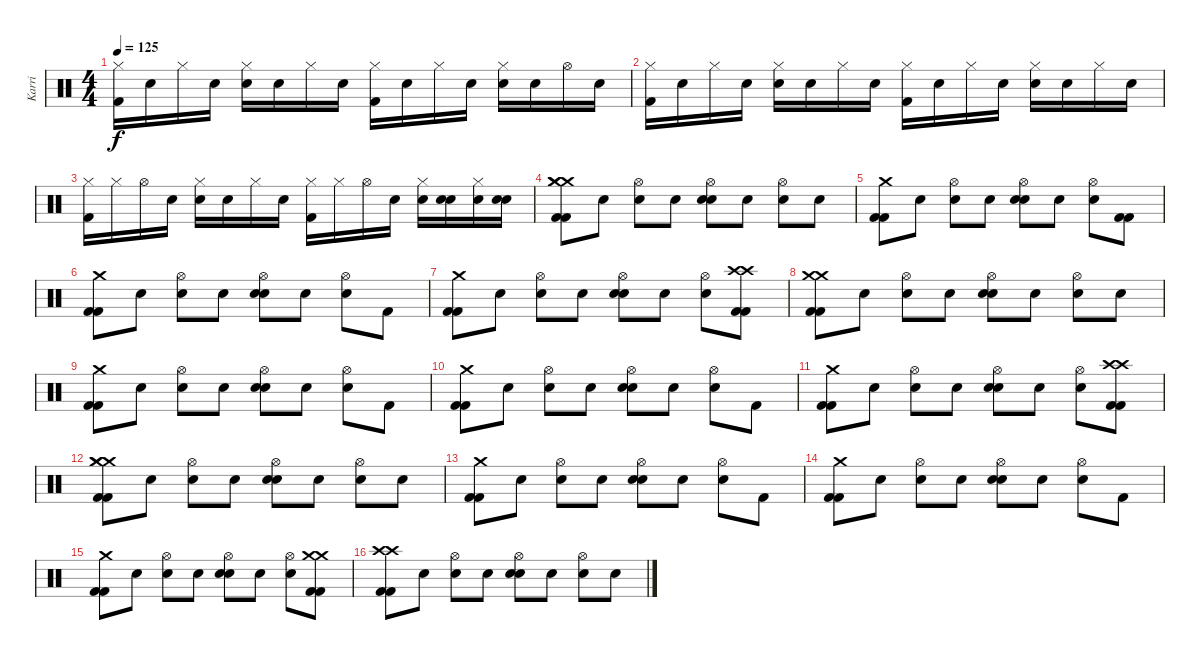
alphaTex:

\track ("Karri" "Karri") {instrument percussion}
\staff {score}
\articulation defaults
\ts (4 4)
\tempo 125
\clef neutral
\ks c
("Hi-Hat (closed)" "Kick (hit) 2").16{dy f} "Snare (hit)"{x}.16 "Hi-Hat (closed)".16 "Snare (hit)"{x}.16 ("Hi-Hat (closed)" "Snare (hit) 2").16 "Snare (hit)"{x}.16 "Hi-Hat (closed)".16 "Snare (hit)"{x}.16 ("Hi-Hat (closed)" "Kick (hit) 2").16 "Snare (hit)"{x}.16 "Hi-Hat (closed)".16 "Snare (hit)"{x}.16 ("Hi-Hat (closed)" "Snare (hit) 2").16 "Snare (hit)"{x}.16 "Hi-Hat (open)".16 "Snare (hit)"{x}.16 |
("Hi-Hat (closed)" "Kick (hit) 2").16 "Snare (hit)"{x}.16 "Hi-Hat (closed)".16 "Snare (hit)"{x}.16 ("Hi-Hat (closed)" "Snare (hit) 2").16 "Snare (hit)"{x}.16 "Hi-Hat (closed)".16 "Snare (hit)"{x}.16 ("Hi-Hat (closed)" "Kick (hit) 2").16 "Snare (hit)"{x}.16 "Hi-Hat (closed)".16 "Snare (hit)"{x}.16 ("Hi-Hat (closed)" "Snare (hit) 2").16 "Snare (hit)"{x}.16 "Hi-Hat (closed)".16 "Snare (hit)"{x}.16 |
("Hi-Hat (closed)" "Kick (hit) 2").16 "Hi-Hat (closed)".16 "Hi-Hat (open)".16 "Snare (hit)"{x}.16 ("Hi-Hat (closed)" "Snare (hit) 2").16 "Snare (hit)"{x}.16 "Hi-Hat (closed)".16 "Snare (hit)"{x}.16 ("Hi-Hat (closed)" "Kick (hit) 2").16 "Hi-Hat (closed)".16 "Hi-Hat (open)".16 "Snare (hit)"{x}.16 ("Hi-Hat (closed)"{x} "Snare (hit) 2").16 ("Snare (hit)"{x} "Snare (hit) 2").16 ("Hi-Hat (closed)"{x} "Snare (hit) 2").16 ("Snare (hit)"{x} "Snare (hit) 2").16 |
("Crash medium (hit)" "Crash medium (hit)" "Crash medium (hit)" "Kick (hit) 2" "Kick (hit) 2").8 "Snare (hit)"{x}.8 ("Hi-Hat (open)" "Snare (hit)"{x}).8 "Snare (hit)"{x}.8 ("Hi-Hat (open)" "Snare (hit) 2" "Snare (hit) 2").8 "Snare (hit)"{x}.8 ("Hi-Hat (open)" "Snare (hit)"{x}).8 "Snare (hit)"{x}.8 |
("Crash medium (hit)" "Kick (hit) 2" "Kick (hit) 2").8 "Snare (hit)"{x}.8 ("Hi-Hat (open)" "Snare (hit)"{x}).8 "Snare (hit)"{x}.8 ("Hi-Hat (open)" "Snare (hit) 2" "Snare (hit) 2").8 "Snare (hit)"{x}.8 ("Hi-Hat (open)" "Snare (hit)"{x}).8 ("Kick (hit) 2"{x} "Kick (hit) 2"{x}).8 |
("Crash medium (hit)" "Kick (hit) 2" "Kick (hit) 2").8 "Snare (hit)"{x}.8 ("Hi-Hat (open)" "Snare (hit)"{x}).8 "Snare (hit)"{x}.8 ("Hi-Hat (open)" "Snare (hit) 2" "Snare (hit) 2").8 "Snare (hit)"{x}.8 ("Hi-Hat (open)" "Snare (hit)"{x}).8 "Kick (hit) 2"{x}.8 |
("Crash medium (hit)" "Kick (hit) 2" "Kick (hit) 2").8 "Snare (hit)"{x}.8 ("Hi-Hat (open)" "Snare (hit)"{x}).8 "Snare (hit)"{x}.8 ("Hi-Hat (open)" "Snare (hit) 2" "Snare (hit) 2").8 "Snare (hit)"{x}.8 ("Hi-Hat (open)" "Snare (hit)"{x}).8 ("Crash high (hit)" "Crash high (hit)" "Kick (hit) 2" "Kick (hit) 2").8 |
("Crash medium (hit)" "Crash medium (hit)" "Kick (hit) 2" "Kick (hit) 2").8 "Snare (hit)"{x}.8 ("Hi-Hat (open)" "Snare (hit)"{x}).8 "Snare (hit)"{x}.8 ("Hi-Hat (open)" "Snare (hit) 2" "Snare (hit) 2").8 "Snare (hit)"{x}.8 ("Hi-Hat (open)" "Snare (hit)"{x}).8 "Snare (hit)"{x}.8 |
("Crash medium (hit)" "Kick (hit) 2" "Kick (hit) 2").8 "Snare (hit)"{x}.8 ("Hi-Hat (open)" "Snare (hit)"{x}).8 "Snare (hit)"{x}.8 ("Hi-Hat (open)" "Snare (hit) 2" "Snare (hit) 2").8 "Snare (hit)"{x}.8 ("Hi-Hat (open)" "Snare (hit)"{x}).8 "Kick (hit) 2"{x}.8 |
("Crash medium (hit)" "Kick (hit) 2" "Kick (hit) 2").8 "Snare (hit)"{x}.8 ("Hi-Hat (open)" "Snare (hit)"{x}).8 "Snare (hit)"{x}.8 ("Hi-Hat (open)" "Snare (hit) 2" "Snare (hit) 2").8 "Snare (hit)"{x}.8 ("Hi-Hat (open)" "Snare (hit)"{x}).8 "Kick (hit) 2"{x}.8 |
("Crash medium (hit)" "Kick (hit) 2" "Kick (hit) 2").8 "Snare (hit)"{x}.8 ("Hi-Hat (open)" "Snare (hit)"{x}).8 "Snare (hit)"{x}.8 ("Hi-Hat (open)" "Snare (hit) 2" "Snare (hit) 2").8 "Snare (hit)"{x}.8 ("Hi-Hat (open)" "Snare (hit)"{x}).8 ("Crash high (hit)" "Crash high (hit)" "Kick (hit) 2" "Kick (hit) 2").8 |
("Crash medium (hit)" "Crash medium (hit)" "Crash medium (hit)" "Kick (hit) 2" "Kick (hit) 2").8 "Snare (hit)"{x}.8 ("Hi-Hat (open)" "Snare (hit)"{x}).8 "Snare (hit)"{x}.8 ("Hi-Hat (open)" "Snare (hit) 2" "Snare (hit) 2").8 "Snare (hit)"{x}.8 ("Hi-Hat (open)" "Snare (hit)"{x}).8 "Snare (hit)"{x}.8 |
("Crash medium (hit)" "Kick (hit) 2" "Kick (hit) 2").8 "Snare (hit)"{x}.8 ("Hi-Hat (open)" "Snare (hit)"{x}).8 "Snare (hit)"{x}.8 ("Hi-Hat (open)" "Snare (hit) 2" "Snare (hit) 2").8 "Snare (hit)"{x}.8 ("Hi-Hat (open)" "Snare (hit)"{x}).8 "Kick (hit) 2"{x}.8 |
("Crash medium (hit)" "Kick (hit) 2" "Kick (hit) 2").8 "Snare (hit)"{x}.8 ("Hi-Hat (open)" "Snare (hit)"{x}).8 "Snare (hit)"{x}.8 ("Hi-Hat (open)" "Snare (hit) 2" "Snare (hit) 2").8 "Snare (hit)"{x}.8 ("Hi-Hat (open)" "Snare (hit)"{x}).8 "Kick (hit) 2"{x}.8 |
("Crash medium (hit)" "Kick (hit) 2" "Kick (hit) 2").8 "Snare (hit)"{x}.8 ("Hi-Hat (open)" "Snare (hit)"{x}).8 "Snare (hit)"{x}.8 ("Hi-Hat (open)" "Snare (hit) 2" "Snare (hit) 2").8 "Snare (hit)"{x}.8 ("Hi-Hat (open)" "Snare (hit)"{x}).8 ("Crash medium (hit)" "Crash medium (hit)" "Kick (hit) 2" "Kick (hit) 2").8 |
("Crash high (hit)" "Crash high (hit)" "Kick (hit) 2" "Kick (hit) 2").8 "Snare (hit)"{x}.8 ("Hi-Hat (open)" "Snare (hit)"{x}).8 "Snare (hit)"{x}.8 ("Hi-Hat (open)" "Snare (hit) 2" "Snare (hit) 2").8 "Snare (hit)"{x}.8 ("Hi-Hat (open)" "Snare (hit)"{x}).8 "Snare (hit)"{x}.8
